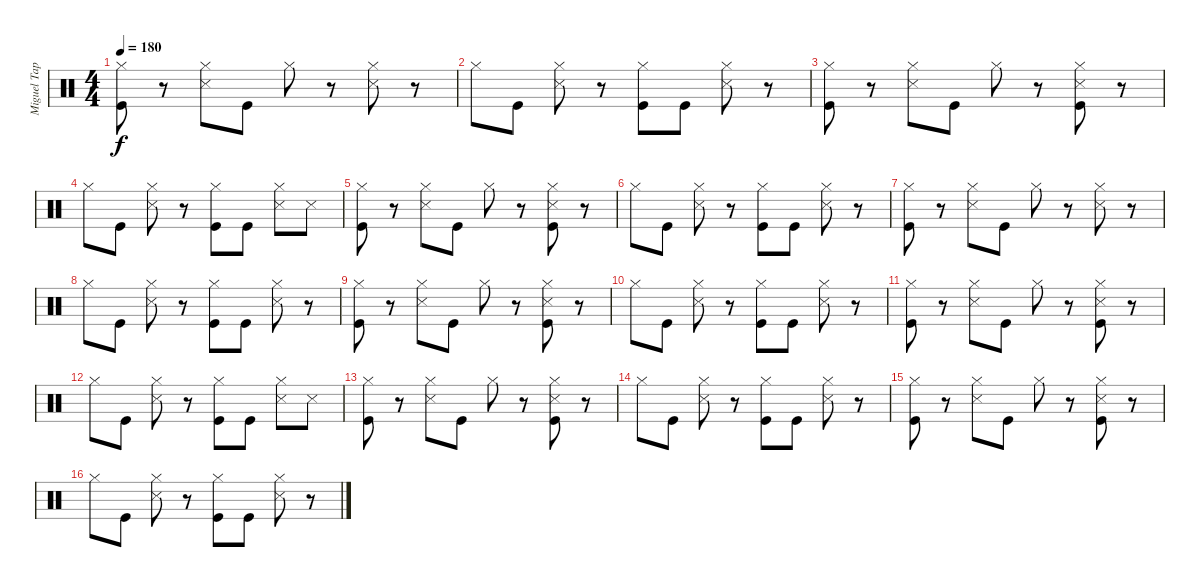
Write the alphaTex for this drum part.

\track ("Miguel Tapia (Batería)" "Miguel Tap") {instrument percussion}
\staff {score}
\articulation defaults
\ts (4 4)
\tempo 180
\clef neutral
\ks c
("Hi-Hat (closed)" "Kick (hit)").8{dy f} r.8 ("Hi-Hat (closed)" "Snare (side stick) 3").8 "Kick (hit)".8 "Hi-Hat (closed)".8 r.8 ("Hi-Hat (closed)" "Snare (side stick) 3").8 r.8 |
"Hi-Hat (closed)".8 "Kick (hit)".8 ("Hi-Hat (closed)" "Snare (side stick) 3").8 r.8 ("Hi-Hat (closed)" "Kick (hit)").8 "Kick (hit)".8 ("Hi-Hat (closed)" "Snare (side stick) 3").8 r.8 |
("Hi-Hat (closed)" "Kick (hit)").8 r.8 ("Hi-Hat (closed)" "Snare (side stick) 3").8 "Kick (hit)".8 "Hi-Hat (closed)".8 r.8 ("Hi-Hat (closed)" "Snare (side stick) 3" "Kick (hit)").8 r.8 |
"Hi-Hat (closed)".8 "Kick (hit)".8 ("Hi-Hat (closed)" "Snare (side stick) 3").8 r.8 ("Hi-Hat (closed)" "Kick (hit)").8 "Kick (hit)".8 ("Hi-Hat (closed)" "Snare (side stick) 3").8 "Snare (side stick) 3".8 |
("Hi-Hat (closed)" "Kick (hit)").8 r.8 ("Hi-Hat (closed)" "Snare (side stick) 3").8 "Kick (hit)".8 "Hi-Hat (closed)".8 r.8 ("Hi-Hat (closed)" "Snare (side stick) 3" "Kick (hit)").8 r.8 |
"Hi-Hat (closed)".8 "Kick (hit)".8 ("Hi-Hat (closed)" "Snare (side stick) 3").8 r.8 ("Hi-Hat (closed)" "Kick (hit)").8 "Kick (hit)".8 ("Hi-Hat (closed)" "Snare (side stick) 3").8 r.8 |
("Hi-Hat (closed)" "Kick (hit)").8 r.8 ("Hi-Hat (closed)" "Snare (side stick) 3").8 "Kick (hit)".8 "Hi-Hat (closed)".8 r.8 ("Hi-Hat (closed)" "Snare (side stick) 3").8 r.8 |
"Hi-Hat (closed)".8 "Kick (hit)".8 ("Hi-Hat (closed)" "Snare (side stick) 3").8 r.8 ("Hi-Hat (closed)" "Kick (hit)").8 "Kick (hit)".8 ("Hi-Hat (closed)" "Snare (side stick) 3").8 r.8 |
("Hi-Hat (closed)" "Kick (hit)").8 r.8 ("Hi-Hat (closed)" "Snare (side stick) 3").8 "Kick (hit)".8 "Hi-Hat (closed)".8 r.8 ("Hi-Hat (closed)" "Snare (side stick) 3" "Kick (hit)").8 r.8 |
"Hi-Hat (closed)".8 "Kick (hit)".8 ("Hi-Hat (closed)" "Snare (side stick) 3").8 r.8 ("Hi-Hat (closed)" "Kick (hit)").8 "Kick (hit)".8 ("Hi-Hat (closed)" "Snare (side stick) 3").8 r.8 |
("Hi-Hat (closed)" "Kick (hit)").8 r.8 ("Hi-Hat (closed)" "Snare (side stick) 3").8 "Kick (hit)".8 "Hi-Hat (closed)".8 r.8 ("Hi-Hat (closed)" "Snare (side stick) 3" "Kick (hit)").8 r.8 |
"Hi-Hat (closed)".8 "Kick (hit)".8 ("Hi-Hat (closed)" "Snare (side stick) 3").8 r.8 ("Hi-Hat (closed)" "Kick (hit)").8 "Kick (hit)".8 ("Hi-Hat (closed)" "Snare (side stick) 3").8 "Snare (side stick) 3".8 |
("Hi-Hat (closed)" "Kick (hit)").8 r.8 ("Hi-Hat (closed)" "Snare (side stick) 3").8 "Kick (hit)".8 "Hi-Hat (closed)".8 r.8 ("Hi-Hat (closed)" "Snare (side stick) 3" "Kick (hit)").8 r.8 |
"Hi-Hat (closed)".8 "Kick (hit)".8 ("Hi-Hat (closed)" "Snare (side stick) 3").8 r.8 ("Hi-Hat (closed)" "Kick (hit)").8 "Kick (hit)".8 ("Hi-Hat (closed)" "Snare (side stick) 3").8 r.8 |
("Hi-Hat (closed)" "Kick (hit)").8 r.8 ("Hi-Hat (closed)" "Snare (side stick) 3").8 "Kick (hit)".8 "Hi-Hat (closed)".8 r.8 ("Hi-Hat (closed)" "Snare (side stick) 3" "Kick (hit)").8 r.8 |
"Hi-Hat (closed)".8 "Kick (hit)".8 ("Hi-Hat (closed)" "Snare (side stick) 3").8 r.8 ("Hi-Hat (closed)" "Kick (hit)").8 "Kick (hit)".8 ("Hi-Hat (closed)" "Snare (side stick) 3").8 r.8
